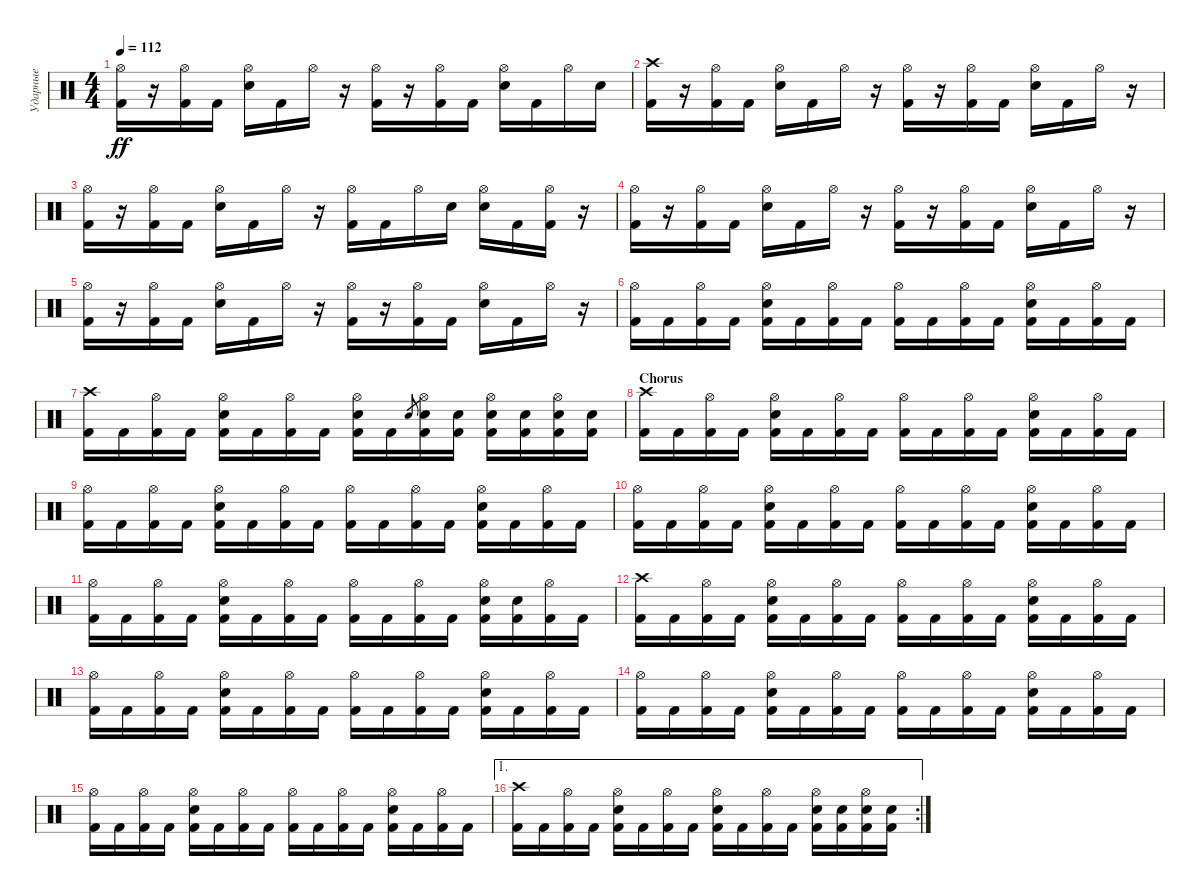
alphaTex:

\track ("Ударные" "Ударные") {instrument percussion}
\staff {score}
\articulation defaults
\ts (4 4)
\tempo 112
\clef neutral
\ks c
("Hi-Hat (open)" "Kick (hit) 2").16{dy ff} r.16 ("Hi-Hat (open)" "Kick (hit) 2").16 "Kick (hit) 2".16 ("Hi-Hat (open)" "Snare (hit) 2").16 "Kick (hit) 2".16 "Hi-Hat (open)".16 r.16 ("Hi-Hat (open)" "Kick (hit) 2").16 r.16 ("Hi-Hat (open)" "Kick (hit) 2").16 "Kick (hit) 2".16 ("Hi-Hat (open)" "Snare (hit) 2").16 "Kick (hit) 2".16 "Hi-Hat (open)".16 "Snare (hit) 2".16 |
("Crash high (hit)" "Kick (hit) 2").16 r.16 ("Hi-Hat (open)" "Kick (hit) 2").16 "Kick (hit) 2".16 ("Hi-Hat (open)" "Snare (hit) 2").16 "Kick (hit) 2".16 "Hi-Hat (open)".16 r.16 ("Hi-Hat (open)" "Kick (hit) 2").16 r.16 ("Hi-Hat (open)" "Kick (hit) 2").16 "Kick (hit) 2".16 ("Hi-Hat (open)" "Snare (hit) 2").16 "Kick (hit) 2".16 "Hi-Hat (open)".16 r.16 |
("Hi-Hat (open)" "Kick (hit) 2").16 r.16 ("Hi-Hat (open)" "Kick (hit) 2").16 "Kick (hit) 2".16 ("Hi-Hat (open)" "Snare (hit) 2").16 "Kick (hit) 2".16 "Hi-Hat (open)".16 r.16 ("Hi-Hat (open)" "Kick (hit) 2").16 "Kick (hit) 2".16 "Hi-Hat (open)".16 "Snare (hit) 2".16 ("Hi-Hat (open)" "Snare (hit) 2").16 "Kick (hit) 2".16 ("Hi-Hat (open)" "Kick (hit) 2").16 r.16 |
("Hi-Hat (open)" "Kick (hit) 2").16 r.16 ("Hi-Hat (open)" "Kick (hit) 2").16 "Kick (hit) 2".16 ("Hi-Hat (open)" "Snare (hit) 2").16 "Kick (hit) 2".16 "Hi-Hat (open)".16 r.16 ("Hi-Hat (open)" "Kick (hit) 2").16 r.16 ("Hi-Hat (open)" "Kick (hit) 2").16 "Kick (hit) 2".16 ("Hi-Hat (open)" "Snare (hit) 2").16 "Kick (hit) 2".16 "Hi-Hat (open)".16 r.16 |
("Hi-Hat (open)" "Kick (hit) 2").16 r.16 ("Hi-Hat (open)" "Kick (hit) 2").16 "Kick (hit) 2".16 ("Hi-Hat (open)" "Snare (hit) 2").16 "Kick (hit) 2".16 "Hi-Hat (open)".16 r.16 ("Hi-Hat (open)" "Kick (hit) 2").16 r.16 ("Hi-Hat (open)" "Kick (hit) 2").16 "Kick (hit) 2".16 ("Hi-Hat (open)" "Snare (hit) 2").16 "Kick (hit) 2".16 "Hi-Hat (open)".16 r.16 |
("Hi-Hat (open)" "Kick (hit) 2").16 "Kick (hit) 2".16 ("Hi-Hat (open)" "Kick (hit) 2").16 "Kick (hit) 2".16 ("Hi-Hat (open)" "Snare (hit) 2" "Kick (hit) 2").16 "Kick (hit) 2".16 ("Hi-Hat (open)" "Kick (hit) 2").16 "Kick (hit) 2".16 ("Hi-Hat (open)" "Kick (hit) 2").16 "Kick (hit) 2".16 ("Hi-Hat (open)" "Kick (hit) 2").16 "Kick (hit) 2".16 ("Hi-Hat (open)" "Snare (hit) 2" "Kick (hit) 2").16 "Kick (hit) 2".16 ("Hi-Hat (open)" "Kick (hit) 2").16 "Kick (hit) 2".16 |
("Crash high (hit)" "Kick (hit) 2").16 "Kick (hit) 2".16 ("Hi-Hat (open)" "Kick (hit) 2").16 "Kick (hit) 2".16 ("Hi-Hat (open)" "Snare (hit) 2" "Kick (hit) 2").16 "Kick (hit) 2".16 ("Hi-Hat (open)" "Kick (hit) 2").16 "Kick (hit) 2".16 ("Hi-Hat (open)" "Snare (hit) 2" "Kick (hit) 2").16 "Kick (hit) 2".16 "Snare (hit) 2".8{gr} ("Hi-Hat (open)" "Snare (hit) 2" "Kick (hit) 2").16 ("Snare (hit) 2" "Kick (hit) 2").16 ("Hi-Hat (open)" "Snare (hit) 2" "Kick (hit) 2").16 ("Snare (hit) 2" "Kick (hit) 2").16 ("Hi-Hat (open)" "Snare (hit) 2" "Kick (hit) 2").16 ("Snare (hit) 2" "Kick (hit) 2").16 |
\section ("" "Chorus")
("Crash high (hit)" "Kick (hit) 2").16 "Kick (hit) 2".16 ("Hi-Hat (open)" "Kick (hit) 2").16 "Kick (hit) 2".16 ("Hi-Hat (open)" "Snare (hit) 2" "Kick (hit) 2").16 "Kick (hit) 2".16 ("Hi-Hat (open)" "Kick (hit) 2").16 "Kick (hit) 2".16 ("Hi-Hat (open)" "Kick (hit) 2").16 "Kick (hit) 2".16 ("Hi-Hat (open)" "Kick (hit) 2").16 "Kick (hit) 2".16 ("Hi-Hat (open)" "Snare (hit) 2" "Kick (hit) 2").16 "Kick (hit) 2".16 ("Hi-Hat (open)" "Kick (hit) 2").16 "Kick (hit) 2".16 |
("Hi-Hat (open)" "Kick (hit) 2").16 "Kick (hit) 2".16 ("Hi-Hat (open)" "Kick (hit) 2").16 "Kick (hit) 2".16 ("Hi-Hat (open)" "Snare (hit) 2" "Kick (hit) 2").16 "Kick (hit) 2".16 ("Hi-Hat (open)" "Kick (hit) 2").16 "Kick (hit) 2".16 ("Hi-Hat (open)" "Kick (hit) 2").16 "Kick (hit) 2".16 ("Hi-Hat (open)" "Kick (hit) 2").16 "Kick (hit) 2".16 ("Hi-Hat (open)" "Snare (hit) 2" "Kick (hit) 2").16 "Kick (hit) 2".16 ("Hi-Hat (open)" "Kick (hit) 2").16 "Kick (hit) 2".16 |
("Hi-Hat (open)" "Kick (hit) 2").16 "Kick (hit) 2".16 ("Hi-Hat (open)" "Kick (hit) 2").16 "Kick (hit) 2".16 ("Hi-Hat (open)" "Snare (hit) 2" "Kick (hit) 2").16 "Kick (hit) 2".16 ("Hi-Hat (open)" "Kick (hit) 2").16 "Kick (hit) 2".16 ("Hi-Hat (open)" "Kick (hit) 2").16 "Kick (hit) 2".16 ("Hi-Hat (open)" "Kick (hit) 2").16 "Kick (hit) 2".16 ("Hi-Hat (open)" "Snare (hit) 2" "Kick (hit) 2").16 "Kick (hit) 2".16 ("Hi-Hat (open)" "Kick (hit) 2").16 "Kick (hit) 2".16 |
("Hi-Hat (open)" "Kick (hit) 2").16 "Kick (hit) 2".16 ("Hi-Hat (open)" "Kick (hit) 2").16 "Kick (hit) 2".16 ("Hi-Hat (open)" "Snare (hit) 2" "Kick (hit) 2").16 "Kick (hit) 2".16 ("Hi-Hat (open)" "Kick (hit) 2").16 "Kick (hit) 2".16 ("Hi-Hat (open)" "Kick (hit) 2").16 "Kick (hit) 2".16 ("Hi-Hat (open)" "Kick (hit) 2").16 "Kick (hit) 2".16 ("Hi-Hat (open)" "Snare (hit) 2" "Kick (hit) 2").16 ("Snare (hit) 2" "Kick (hit) 2").16 ("Hi-Hat (open)" "Kick (hit) 2").16 "Kick (hit) 2".16 |
("Crash high (hit)" "Kick (hit) 2").16 "Kick (hit) 2".16 ("Hi-Hat (open)" "Kick (hit) 2").16 "Kick (hit) 2".16 ("Hi-Hat (open)" "Snare (hit) 2" "Kick (hit) 2").16 "Kick (hit) 2".16 ("Hi-Hat (open)" "Kick (hit) 2").16 "Kick (hit) 2".16 ("Hi-Hat (open)" "Kick (hit) 2").16 "Kick (hit) 2".16 ("Hi-Hat (open)" "Kick (hit) 2").16 "Kick (hit) 2".16 ("Hi-Hat (open)" "Snare (hit) 2" "Kick (hit) 2").16 "Kick (hit) 2".16 ("Hi-Hat (open)" "Kick (hit) 2").16 "Kick (hit) 2".16 |
("Hi-Hat (open)" "Kick (hit) 2").16 "Kick (hit) 2".16 ("Hi-Hat (open)" "Kick (hit) 2").16 "Kick (hit) 2".16 ("Hi-Hat (open)" "Snare (hit) 2" "Kick (hit) 2").16 "Kick (hit) 2".16 ("Hi-Hat (open)" "Kick (hit) 2").16 "Kick (hit) 2".16 ("Hi-Hat (open)" "Kick (hit) 2").16 "Kick (hit) 2".16 ("Hi-Hat (open)" "Kick (hit) 2").16 "Kick (hit) 2".16 ("Hi-Hat (open)" "Snare (hit) 2" "Kick (hit) 2").16 "Kick (hit) 2".16 ("Hi-Hat (open)" "Kick (hit) 2").16 "Kick (hit) 2".16 |
("Hi-Hat (open)" "Kick (hit) 2").16 "Kick (hit) 2".16 ("Hi-Hat (open)" "Kick (hit) 2").16 "Kick (hit) 2".16 ("Hi-Hat (open)" "Snare (hit) 2" "Kick (hit) 2").16 "Kick (hit) 2".16 ("Hi-Hat (open)" "Kick (hit) 2").16 "Kick (hit) 2".16 ("Hi-Hat (open)" "Kick (hit) 2").16 "Kick (hit) 2".16 ("Hi-Hat (open)" "Kick (hit) 2").16 "Kick (hit) 2".16 ("Hi-Hat (open)" "Snare (hit) 2" "Kick (hit) 2").16 "Kick (hit) 2".16 ("Hi-Hat (open)" "Kick (hit) 2").16 "Kick (hit) 2".16 |
("Hi-Hat (open)" "Kick (hit) 2").16 "Kick (hit) 2".16 ("Hi-Hat (open)" "Kick (hit) 2").16 "Kick (hit) 2".16 ("Hi-Hat (open)" "Snare (hit) 2" "Kick (hit) 2").16 "Kick (hit) 2".16 ("Hi-Hat (open)" "Kick (hit) 2").16 "Kick (hit) 2".16 ("Hi-Hat (open)" "Kick (hit) 2").16 "Kick (hit) 2".16 ("Hi-Hat (open)" "Kick (hit) 2").16 "Kick (hit) 2".16 ("Hi-Hat (open)" "Snare (hit) 2" "Kick (hit) 2").16 "Kick (hit) 2".16 ("Hi-Hat (open)" "Kick (hit) 2").16 "Kick (hit) 2".16 |
\ae 1
\rc 2
("Crash high (hit)" "Kick (hit) 2").16 "Kick (hit) 2".16 ("Hi-Hat (open)" "Kick (hit) 2").16 "Kick (hit) 2".16 ("Hi-Hat (open)" "Snare (hit) 2" "Kick (hit) 2").16 "Kick (hit) 2".16 ("Hi-Hat (open)" "Kick (hit) 2").16 "Kick (hit) 2".16 ("Hi-Hat (open)" "Snare (hit) 2" "Kick (hit) 2").16 "Kick (hit) 2".16 ("Hi-Hat (open)" "Kick (hit) 2").16 "Kick (hit) 2".16 ("Hi-Hat (open)" "Snare (hit) 2" "Kick (hit) 2").16 ("Snare (hit) 2" "Kick (hit) 2").16 ("Hi-Hat (open)" "Snare (hit) 2" "Kick (hit) 2").16 ("Snare (hit) 2" "Kick (hit) 2").16
